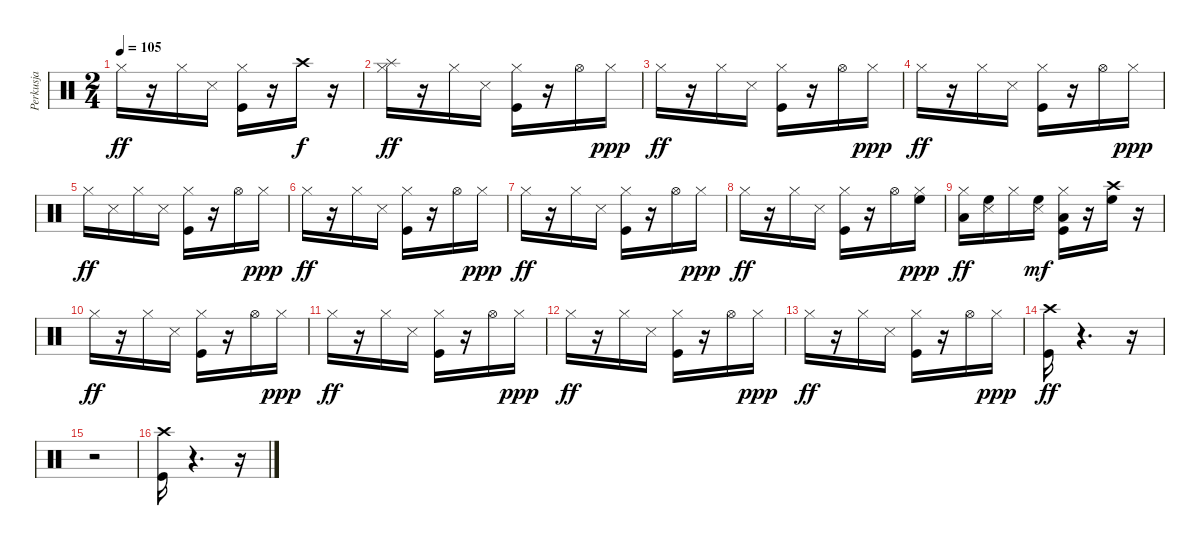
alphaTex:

\track ("Perkusja" "Perkusja") {instrument percussion}
\staff {score}
\articulation defaults
\ts (2 4)
\tempo 105
\clef neutral
\ks c "Hi-Hat (closed)".16{dy ff}
r.16 "Hi-Hat (closed)".16 "Snare (side stick) 3".16 ("Kick (hit)" "Hi-Hat (closed)").16 r.16 "Crash high (hit)".16{dy f} r.16 |
("Hi-Hat (closed)" "Splash (hit)").16{dy ff} r.16 "Hi-Hat (closed)".16 "Snare (side stick) 3".16 ("Kick (hit)" "Hi-Hat (closed)").16 r.16 "Hi-Hat (open)".16 "Hi-Hat (closed)".16{dy ppp} |
"Hi-Hat (closed)".16{dy ff} r.16 "Hi-Hat (closed)".16 "Snare (side stick) 3".16 ("Kick (hit)" "Hi-Hat (closed)").16 r.16 "Hi-Hat (open)".16 "Hi-Hat (closed)".16{dy ppp} |
"Hi-Hat (closed)".16{dy ff} r.16 "Hi-Hat (closed)".16 "Snare (side stick) 3".16 ("Kick (hit)" "Hi-Hat (closed)").16 r.16 "Hi-Hat (open)".16 "Hi-Hat (closed)".16{dy ppp} |
"Hi-Hat (closed)".16{dy ff} "Snare (side stick) 3".16 "Hi-Hat (closed)".16 "Snare (side stick) 3".16 ("Kick (hit)" "Hi-Hat (closed)").16 r.16 "Hi-Hat (open)".16 "Hi-Hat (closed)".16{dy ppp} |
"Hi-Hat (closed)".16{dy ff} r.16 "Hi-Hat (closed)".16 "Snare (side stick) 3".16 ("Kick (hit)" "Hi-Hat (closed)").16 r.16 "Hi-Hat (open)".16 "Hi-Hat (closed)".16{dy ppp} |
"Hi-Hat (closed)".16{dy ff} r.16 "Hi-Hat (closed)".16 "Snare (side stick) 3".16 ("Kick (hit)" "Hi-Hat (closed)").16 r.16 "Hi-Hat (open)".16 "Hi-Hat (closed)".16{dy ppp} |
"Hi-Hat (closed)".16{dy ff} r.16 "Hi-Hat (closed)".16 "Snare (side stick) 3".16 ("Kick (hit)" "Hi-Hat (closed)").16 r.16 "Hi-Hat (open)".16 ("Hi-Hat (closed)" "High Floor Tom (hit)").16{dy ppp} |
("Hi-Hat (closed)" "Low Tom (hit)").16{dy ff} ("Snare (side stick) 3" "High Floor Tom (hit)").16 "Hi-Hat (closed)".16 ("Snare (side stick) 3" "High Floor Tom (hit)").16{dy mf} ("Kick (hit)" "Hi-Hat (closed)" "Low Tom (hit)").16 r.16 ("Crash high (hit)" "High Floor Tom (hit)").16 r.16 |
"Hi-Hat (closed)".16{dy ff} r.16 "Hi-Hat (closed)".16 "Snare (side stick) 3".16 ("Kick (hit)" "Hi-Hat (closed)").16 r.16 "Hi-Hat (open)".16 "Hi-Hat (closed)".16{dy ppp} |
"Hi-Hat (closed)".16{dy ff} r.16 "Hi-Hat (closed)".16 "Snare (side stick) 3".16 ("Kick (hit)" "Hi-Hat (closed)").16 r.16 "Hi-Hat (open)".16 "Hi-Hat (closed)".16{dy ppp} |
"Hi-Hat (closed)".16{dy ff} r.16 "Hi-Hat (closed)".16 "Snare (side stick) 3".16 ("Kick (hit)" "Hi-Hat (closed)").16 r.16 "Hi-Hat (open)".16 "Hi-Hat (closed)".16{dy ppp} |
"Hi-Hat (closed)".16{dy ff} r.16 "Hi-Hat (closed)".16 "Snare (side stick) 3".16 ("Kick (hit)" "Hi-Hat (closed)").16 r.16 "Hi-Hat (open)".16 "Hi-Hat (closed)".16{dy ppp} |
("Kick (hit)" "Crash high (hit)").16{dy ff} r.4{d} r.16 |
r.2 |
("Kick (hit)" "Crash high (hit)").16 r.4{d} r.16
